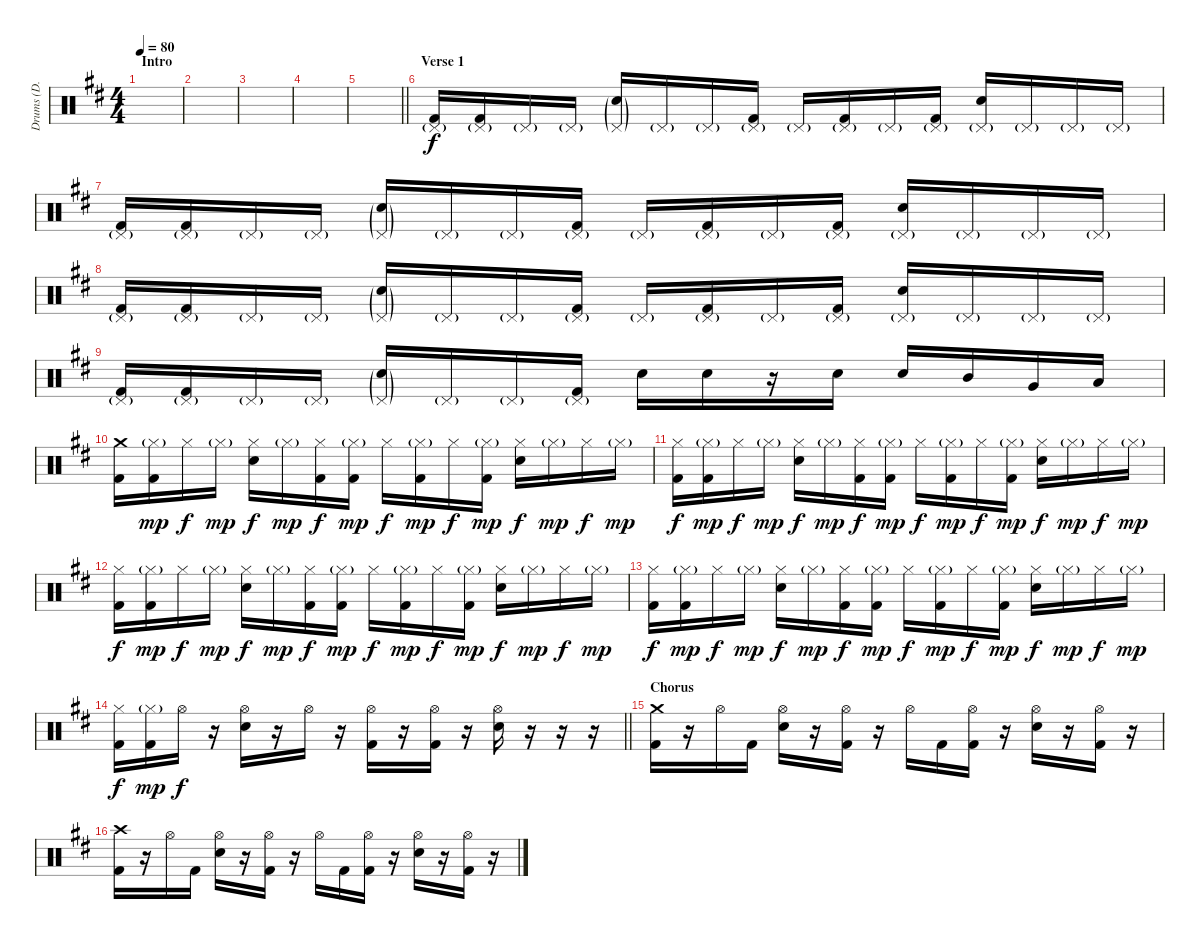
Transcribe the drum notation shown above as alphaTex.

\track ("Drums (D. Adair)" "Drums (D. ") {instrument percussion}
\staff {score}
\articulation defaults
\ts (4 4)
\section ("" "Intro")
\tempo 80
\clef neutral
\ks d
|
|
|
|
\barLineRight lightlight
|
\section ("" "Verse 1")
("Pedal Hi-Hat (hit)"{g} "Kick (hit) 2").16 ("Pedal Hi-Hat (hit)"{g} "Kick (hit) 2").16 "Pedal Hi-Hat (hit)"{g}.16 "Pedal Hi-Hat (hit)"{g}.16 ("Pedal Hi-Hat (hit)"{g} "Snare (hit) 2"{g}).16 "Pedal Hi-Hat (hit)"{g}.16 "Pedal Hi-Hat (hit)"{g}.16 ("Pedal Hi-Hat (hit)"{g} "Kick (hit) 2").16 "Pedal Hi-Hat (hit)"{g}.16 ("Pedal Hi-Hat (hit)"{g} "Kick (hit) 2").16 "Pedal Hi-Hat (hit)"{g}.16 ("Pedal Hi-Hat (hit)"{g} "Kick (hit) 2").16 ("Pedal Hi-Hat (hit)"{g} "Snare (hit) 2").16 "Pedal Hi-Hat (hit)"{g}.16 "Pedal Hi-Hat (hit)"{g}.16 "Pedal Hi-Hat (hit)"{g}.16 |
("Pedal Hi-Hat (hit)"{g} "Kick (hit) 2").16 ("Pedal Hi-Hat (hit)"{g} "Kick (hit) 2").16 "Pedal Hi-Hat (hit)"{g}.16 "Pedal Hi-Hat (hit)"{g}.16 ("Pedal Hi-Hat (hit)"{g} "Snare (hit) 2"{g}).16 "Pedal Hi-Hat (hit)"{g}.16 "Pedal Hi-Hat (hit)"{g}.16 ("Pedal Hi-Hat (hit)"{g} "Kick (hit) 2").16 "Pedal Hi-Hat (hit)"{g}.16 ("Pedal Hi-Hat (hit)"{g} "Kick (hit) 2").16 "Pedal Hi-Hat (hit)"{g}.16 ("Pedal Hi-Hat (hit)"{g} "Kick (hit) 2").16 ("Pedal Hi-Hat (hit)"{g} "Snare (hit) 2").16 "Pedal Hi-Hat (hit)"{g}.16 "Pedal Hi-Hat (hit)"{g}.16 "Pedal Hi-Hat (hit)"{g}.16 |
("Pedal Hi-Hat (hit)"{g} "Kick (hit) 2").16 ("Pedal Hi-Hat (hit)"{g} "Kick (hit) 2").16 "Pedal Hi-Hat (hit)"{g}.16 "Pedal Hi-Hat (hit)"{g}.16 ("Pedal Hi-Hat (hit)"{g} "Snare (hit) 2"{g}).16 "Pedal Hi-Hat (hit)"{g}.16 "Pedal Hi-Hat (hit)"{g}.16 ("Pedal Hi-Hat (hit)"{g} "Kick (hit) 2").16 "Pedal Hi-Hat (hit)"{g}.16 ("Pedal Hi-Hat (hit)"{g} "Kick (hit) 2").16 "Pedal Hi-Hat (hit)"{g}.16 ("Pedal Hi-Hat (hit)"{g} "Kick (hit) 2").16 ("Pedal Hi-Hat (hit)"{g} "Snare (hit) 2").16 "Pedal Hi-Hat (hit)"{g}.16 "Pedal Hi-Hat (hit)"{g}.16 "Pedal Hi-Hat (hit)"{g}.16 |
("Pedal Hi-Hat (hit)"{g} "Kick (hit) 2").16 ("Pedal Hi-Hat (hit)"{g} "Kick (hit) 2").16 "Pedal Hi-Hat (hit)"{g}.16 "Pedal Hi-Hat (hit)"{g}.16 ("Pedal Hi-Hat (hit)"{g} "Snare (hit) 2"{g}).16 "Pedal Hi-Hat (hit)"{g}.16 "Pedal Hi-Hat (hit)"{g}.16 ("Pedal Hi-Hat (hit)"{g} "Kick (hit) 2").16 "Snare (hit) 2".16{dy f} "Snare (hit) 2".16 r.16 "Snare (hit) 2".16 "Snare (hit) 2".16 "Mid Tom (hit)".16 "Very Low Tom (hit)".16 "Low Floor Tom (hit)".16 |
("Crash medium (hit)" "Kick (hit) 2").16 ("Hi-Hat (closed)"{g} "Kick (hit) 2").16{dy mp} "Hi-Hat (closed)".16{dy f} "Hi-Hat (closed)"{g}.16{dy mp} ("Hi-Hat (closed)" "Snare (hit) 2").16{dy f} "Hi-Hat (closed)"{g}.16{dy mp} ("Hi-Hat (closed)" "Kick (hit) 2").16{dy f} ("Hi-Hat (closed)"{g} "Kick (hit) 2").16{dy mp} "Hi-Hat (closed)".16{dy f} ("Hi-Hat (closed)"{g} "Kick (hit) 2").16{dy mp} "Hi-Hat (closed)".16{dy f} ("Hi-Hat (closed)"{g} "Kick (hit) 2").16{dy mp} ("Hi-Hat (closed)" "Snare (hit) 2").16{dy f} "Hi-Hat (closed)"{g}.16{dy mp} "Hi-Hat (closed)".16{dy f} "Hi-Hat (closed)"{g}.16{dy mp} |
("Hi-Hat (closed)" "Kick (hit) 2").16{dy f} ("Hi-Hat (closed)"{g} "Kick (hit) 2").16{dy mp} "Hi-Hat (closed)".16{dy f} "Hi-Hat (closed)"{g}.16{dy mp} ("Hi-Hat (closed)" "Snare (hit) 2").16{dy f} "Hi-Hat (closed)"{g}.16{dy mp} ("Hi-Hat (closed)" "Kick (hit) 2").16{dy f} ("Hi-Hat (closed)"{g} "Kick (hit) 2").16{dy mp} "Hi-Hat (closed)".16{dy f} ("Hi-Hat (closed)"{g} "Kick (hit) 2").16{dy mp} "Hi-Hat (closed)".16{dy f} ("Hi-Hat (closed)"{g} "Kick (hit) 2").16{dy mp} ("Hi-Hat (closed)" "Snare (hit) 2").16{dy f} "Hi-Hat (closed)"{g}.16{dy mp} "Hi-Hat (closed)".16{dy f} "Hi-Hat (closed)"{g}.16{dy mp} |
("Hi-Hat (closed)" "Kick (hit) 2").16{dy f} ("Hi-Hat (closed)"{g} "Kick (hit) 2").16{dy mp} "Hi-Hat (closed)".16{dy f} "Hi-Hat (closed)"{g}.16{dy mp} ("Hi-Hat (closed)" "Snare (hit) 2").16{dy f} "Hi-Hat (closed)"{g}.16{dy mp} ("Hi-Hat (closed)" "Kick (hit) 2").16{dy f} ("Hi-Hat (closed)"{g} "Kick (hit) 2").16{dy mp} "Hi-Hat (closed)".16{dy f} ("Hi-Hat (closed)"{g} "Kick (hit) 2").16{dy mp} "Hi-Hat (closed)".16{dy f} ("Hi-Hat (closed)"{g} "Kick (hit) 2").16{dy mp} ("Hi-Hat (closed)" "Snare (hit) 2").16{dy f} "Hi-Hat (closed)"{g}.16{dy mp} "Hi-Hat (closed)".16{dy f} "Hi-Hat (closed)"{g}.16{dy mp} |
("Hi-Hat (closed)" "Kick (hit) 2").16{dy f} ("Hi-Hat (closed)"{g} "Kick (hit) 2").16{dy mp} "Hi-Hat (closed)".16{dy f} "Hi-Hat (closed)"{g}.16{dy mp} ("Hi-Hat (closed)" "Snare (hit) 2").16{dy f} "Hi-Hat (closed)"{g}.16{dy mp} ("Hi-Hat (closed)" "Kick (hit) 2").16{dy f} ("Hi-Hat (closed)"{g} "Kick (hit) 2").16{dy mp} "Hi-Hat (closed)".16{dy f} ("Hi-Hat (closed)"{g} "Kick (hit) 2").16{dy mp} "Hi-Hat (closed)".16{dy f} ("Hi-Hat (closed)"{g} "Kick (hit) 2").16{dy mp} ("Hi-Hat (closed)" "Snare (hit) 2").16{dy f} "Hi-Hat (closed)"{g}.16{dy mp} "Hi-Hat (closed)".16{dy f} "Hi-Hat (closed)"{g}.16{dy mp} |
\barLineRight lightlight
("Hi-Hat (closed)" "Kick (hit) 2").16{dy f} ("Hi-Hat (closed)"{g} "Kick (hit) 2").16{dy mp} "Hi-Hat (open)".16{dy f} r.16 ("Hi-Hat (open)" "Snare (hit) 2").16 r.16 "Hi-Hat (open)".16 r.16 ("Hi-Hat (open)" "Kick (hit) 2").16 r.16 ("Hi-Hat (open)" "Kick (hit) 2").16 r.16 ("Hi-Hat (open)" "Snare (hit) 2").16 r.16 r.16 r.16 |
\section ("" "Chorus")
("Crash medium (hit)" "Kick (hit) 2").16 r.16 "Hi-Hat (open)".16 "Kick (hit) 2".16 ("Hi-Hat (open)" "Snare (hit) 2").16 r.16 ("Hi-Hat (open)" "Kick (hit) 2").16 r.16 "Hi-Hat (open)".16 "Kick (hit) 2".16 ("Hi-Hat (open)" "Kick (hit) 2").16 r.16 ("Hi-Hat (open)" "Snare (hit) 2").16 r.16 ("Hi-Hat (open)" "Kick (hit) 2").16 r.16 |
("Crash high (hit)" "Kick (hit) 2").16 r.16 "Hi-Hat (open)".16 "Kick (hit) 2".16 ("Hi-Hat (open)" "Snare (hit) 2").16 r.16 ("Hi-Hat (open)" "Kick (hit) 2").16 r.16 "Hi-Hat (open)".16 "Kick (hit) 2".16 ("Hi-Hat (open)" "Kick (hit) 2").16 r.16 ("Hi-Hat (open)" "Snare (hit) 2").16 r.16 ("Hi-Hat (open)" "Kick (hit) 2").16 r.16
